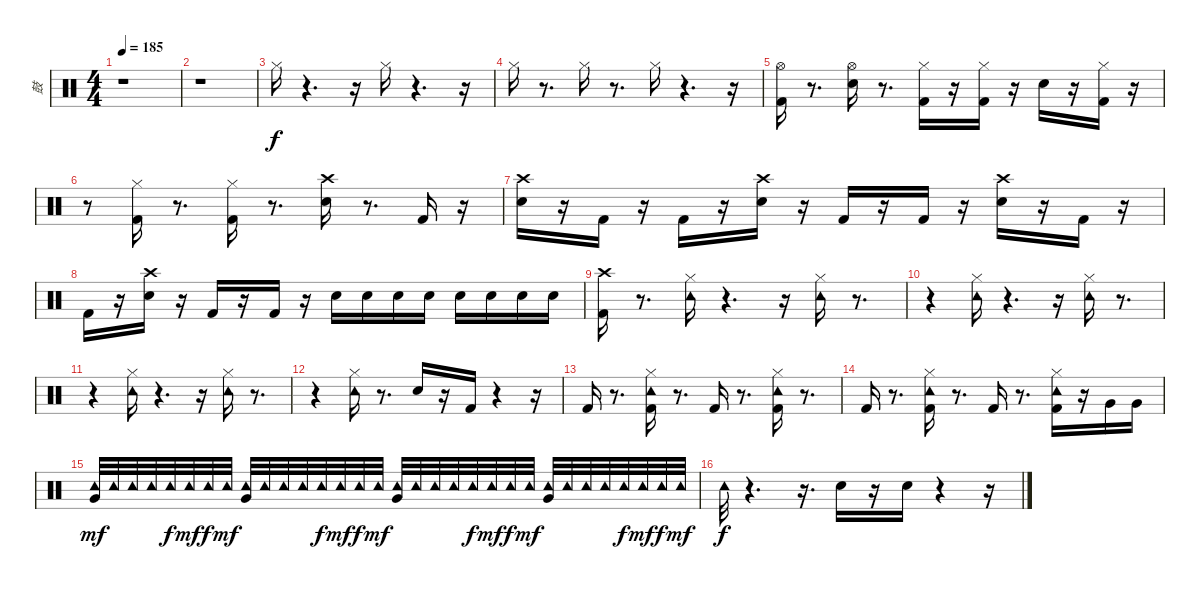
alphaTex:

\track ("鼓" "鼓") {instrument percussion}
\staff {score}
\articulation defaults
\ts (4 4)
\tempo 185
\clef neutral
\ks c
r.1{dy f} |
r.1 |
"Hi-Hat (closed)".16 r.4{d} r.16 "Hi-Hat (closed)".16 r.4{d} r.16 |
"Hi-Hat (closed)".16 r.8{d} "Hi-Hat (closed)".16 r.8{d} "Hi-Hat (closed)".16 r.4{d} r.16 |
("Kick (hit) 2" "Hi-Hat (open)").16 r.8{d} ("Snare (hit) 2" "Hi-Hat (open)").16 r.8{d} ("Hi-Hat (closed)" "Kick (hit) 2").16 r.16 ("Hi-Hat (closed)" "Kick (hit) 2").16 r.16 "Snare (hit) 2".16 r.16 ("Hi-Hat (closed)" "Kick (hit) 2").16 r.16 |
r.8 ("Hi-Hat (closed)" "Kick (hit) 2").16 r.8{d} ("Hi-Hat (closed)" "Kick (hit) 2").16 r.8{d} ("Snare (hit) 2" "Crash high (hit)").16 r.8{d} "Kick (hit) 2".16 r.16 |
("Crash high (hit)" "Snare (hit) 2").16 r.16 "Kick (hit) 2".16 r.16 "Kick (hit) 2".16 r.16 ("Crash high (hit)" "Snare (hit) 2").16 r.16 "Kick (hit) 2".16 r.16 "Kick (hit) 2".16 r.16 ("Crash high (hit)" "Snare (hit) 2").16 r.16 "Kick (hit) 2".16 r.16 |
"Kick (hit) 2".16 r.16 ("Snare (hit) 2" "Crash high (hit)").16 r.16 "Kick (hit) 2".16 r.16 "Kick (hit) 2".16 r.16 "Snare (hit) 2".16 "Snare (hit) 2".16 "Snare (hit) 2".16 "Snare (hit) 2".16 "Snare (hit) 2".16 "Snare (hit) 2".16 "Snare (hit) 2".16 "Snare (hit) 2".16 |
("Kick (hit) 2" "Crash high (hit)").16 r.8{d} ("Tambourine (hit)" "Hi-Hat (closed)").16 r.4{d} r.16 ("Tambourine (hit)" "Hi-Hat (closed)").16 r.8{d} |
r.4 ("Tambourine (hit)" "Hi-Hat (closed)").16 r.4{d} r.16 ("Tambourine (hit)" "Hi-Hat (closed)").16 r.8{d} |
r.4 ("Tambourine (hit)" "Hi-Hat (closed)").16 r.4{d} r.16 ("Tambourine (hit)" "Hi-Hat (closed)").16 r.8{d} |
r.4 ("Tambourine (hit)" "Hi-Hat (closed)").16 r.8{d} "Snare (hit) 2".16 r.16 "Kick (hit) 2".16 r.4 r.16 |
"Kick (hit) 2".16 r.8{d} ("Tambourine (hit)" "Hi-Hat (closed)" "Kick (hit) 2").16 r.8{d} "Kick (hit) 2".16 r.8{d} ("Tambourine (hit)" "Hi-Hat (closed)" "Kick (hit) 2").16 r.8{d} |
"Kick (hit) 2".16 r.8{d} ("Hi-Hat (closed)" "Kick (hit) 2" "Tambourine (hit)").16 r.8{d} "Kick (hit) 2".16 r.8{d} ("Hi-Hat (closed)" "Kick (hit) 2" "Tambourine (hit)").16 r.16 "Very Low Tom (hit)".16 "Very Low Tom (hit)".16 |
("Tambourine (hit)" "Very Low Tom (hit)").32{dy mf} "Tambourine (hit)".32 "Tambourine (hit)".32 "Tambourine (hit)".32 "Tambourine (hit)".32{dy f} "Tambourine (hit)".32{dy mf} "Tambourine (hit)".32{dy f} "Tambourine (hit)".32{dy mf} ("Tambourine (hit)" "Very Low Tom (hit)").32 "Tambourine (hit)".32 "Tambourine (hit)".32 "Tambourine (hit)".32 "Tambourine (hit)".32{dy f} "Tambourine (hit)".32{dy mf} "Tambourine (hit)".32{dy f} "Tambourine (hit)".32{dy mf} ("Tambourine (hit)" "Very Low Tom (hit)").32 "Tambourine (hit)".32 "Tambourine (hit)".32 "Tambourine (hit)".32 "Tambourine (hit)".32{dy f} "Tambourine (hit)".32{dy mf} "Tambourine (hit)".32{dy f} "Tambourine (hit)".32{dy mf} ("Tambourine (hit)" "Very Low Tom (hit)").32 "Tambourine (hit)".32 "Tambourine (hit)".32 "Tambourine (hit)".32 "Tambourine (hit)".32{dy f} "Tambourine (hit)".32{dy mf} "Tambourine (hit)".32{dy f} "Tambourine (hit)".32{dy mf} |
"Tambourine (hit)".32{dy f} r.4{d} r.16{d} "Snare (hit) 2".16 r.16 "Snare (hit) 2".16 r.4 r.16
